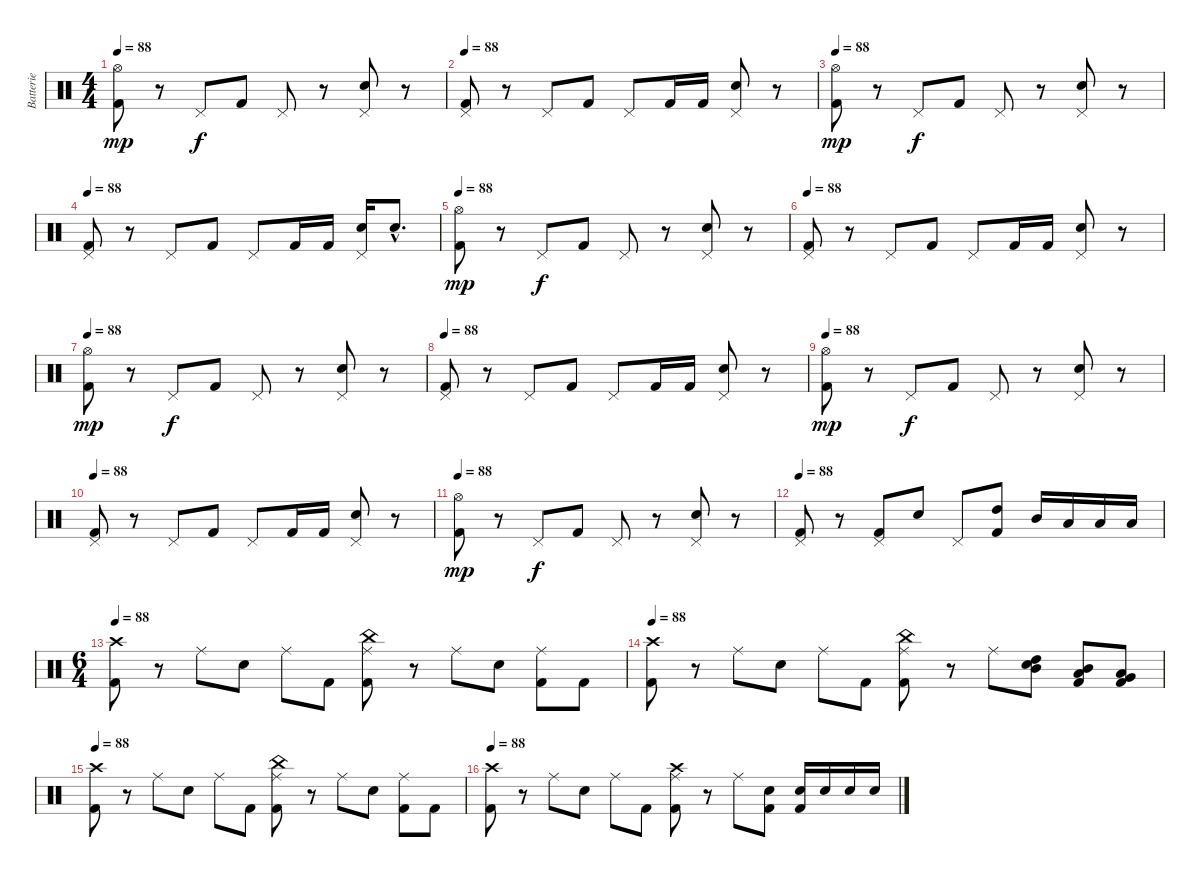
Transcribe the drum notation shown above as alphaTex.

\track ("Batterie" "Batterie") {instrument percussion}
\staff {score}
\articulation defaults
\ts (4 4)
\tempo 88
\clef neutral
\ks c
("Hi-Hat (open)" "Kick (hit) 2").8{dy mp} r.8 "Pedal Hi-Hat (hit)".8{dy f} "Kick (hit) 2".8 "Pedal Hi-Hat (hit)".8 r.8 ("Pedal Hi-Hat (hit)" "Electric Snare (hit)").8 r.8 |
\tempo 88
("Pedal Hi-Hat (hit)" "Kick (hit) 2").8 r.8 "Pedal Hi-Hat (hit)".8 "Kick (hit) 2".8 "Pedal Hi-Hat (hit)".8 "Kick (hit) 2".16 "Kick (hit) 2".16 ("Pedal Hi-Hat (hit)" "Electric Snare (hit)").8 r.8 |
\tempo 88
("Hi-Hat (open)" "Kick (hit) 2").8{dy mp} r.8 "Pedal Hi-Hat (hit)".8{dy f} "Kick (hit) 2".8 "Pedal Hi-Hat (hit)".8 r.8 ("Pedal Hi-Hat (hit)" "Electric Snare (hit)").8 r.8 |
\tempo 88
("Pedal Hi-Hat (hit)" "Kick (hit) 2").8 r.8 "Pedal Hi-Hat (hit)".8 "Kick (hit) 2".8 "Pedal Hi-Hat (hit)".8 "Kick (hit) 2".16 "Kick (hit) 2".16 ("Pedal Hi-Hat (hit)" "Electric Snare (hit)").16 "Electric Snare (hit)"{hac}.8{d} |
\tempo 88
("Hi-Hat (open)" "Kick (hit) 2").8{dy mp} r.8 "Pedal Hi-Hat (hit)".8{dy f} "Kick (hit) 2".8 "Pedal Hi-Hat (hit)".8 r.8 ("Pedal Hi-Hat (hit)" "Electric Snare (hit)").8 r.8 |
\tempo 88
("Pedal Hi-Hat (hit)" "Kick (hit) 2").8 r.8 "Pedal Hi-Hat (hit)".8 "Kick (hit) 2".8 "Pedal Hi-Hat (hit)".8 "Kick (hit) 2".16 "Kick (hit) 2".16 ("Pedal Hi-Hat (hit)" "Electric Snare (hit)").8 r.8 |
\tempo 88
("Hi-Hat (open)" "Kick (hit) 2").8{dy mp} r.8 "Pedal Hi-Hat (hit)".8{dy f} "Kick (hit) 2".8 "Pedal Hi-Hat (hit)".8 r.8 ("Pedal Hi-Hat (hit)" "Electric Snare (hit)").8 r.8 |
\tempo 88
("Pedal Hi-Hat (hit)" "Kick (hit) 2").8 r.8 "Pedal Hi-Hat (hit)".8 "Kick (hit) 2".8 "Pedal Hi-Hat (hit)".8 "Kick (hit) 2".16 "Kick (hit) 2".16 ("Pedal Hi-Hat (hit)" "Electric Snare (hit)").8 r.8 |
\tempo 88
("Hi-Hat (open)" "Kick (hit) 2").8{dy mp} r.8 "Pedal Hi-Hat (hit)".8{dy f} "Kick (hit) 2".8 "Pedal Hi-Hat (hit)".8 r.8 ("Pedal Hi-Hat (hit)" "Electric Snare (hit)").8 r.8 |
\tempo 88
("Pedal Hi-Hat (hit)" "Kick (hit) 2").8 r.8 "Pedal Hi-Hat (hit)".8 "Kick (hit) 2".8 "Pedal Hi-Hat (hit)".8 "Kick (hit) 2".16 "Kick (hit) 2".16 ("Pedal Hi-Hat (hit)" "Electric Snare (hit)").8 r.8 |
\tempo 88
("Hi-Hat (open)" "Kick (hit) 2").8{dy mp} r.8 "Pedal Hi-Hat (hit)".8{dy f} "Kick (hit) 2".8 "Pedal Hi-Hat (hit)".8 r.8 ("Pedal Hi-Hat (hit)" "Electric Snare (hit)").8 r.8 |
\tempo 88
("Pedal Hi-Hat (hit)" "Kick (hit) 2").8 r.8 ("Pedal Hi-Hat (hit)" "Kick (hit) 2").8 "Electric Snare (hit)".8 "Pedal Hi-Hat (hit)".8 ("High Tom (hit)" "Kick (hit) 2").8 "Mid Tom (hit)".16 "Low Tom (hit)".16 "Low Floor Tom (hit)".16 "Low Floor Tom (hit)".16 |
\ts (6 4)
\tempo 88
("Crash high (hit)" "Kick (hit) 2").8 r.8 "Ride (middle)".8 "Electric Snare (hit)".8 "Ride (middle)".8 "Kick (hit) 2".8 ("China (hit)" "Ride (middle)" "Kick (hit) 2").8 r.8 "Ride (middle)".8 "Electric Snare (hit)".8 ("Ride (middle)" "Kick (hit) 2").8 "Kick (hit) 2".8 |
\tempo 88
("Crash high (hit)" "Kick (hit) 2").8 r.8 "Ride (middle)".8 "Electric Snare (hit)".8 "Ride (middle)".8 "Kick (hit) 2".8 ("China (hit)" "Ride (middle)" "Kick (hit) 2").8 r.8 "Ride (middle)".8 ("High Tom (hit)" "Mid Tom (hit)" "Electric Snare (hit)").8 ("Mid Tom (hit)" "Low Tom (hit)" "Kick (hit) 2").8 ("Low Tom (hit)" "Very Low Tom (hit)" "Kick (hit) 2").8 |
\tempo 88
("Crash high (hit)" "Kick (hit) 2").8 r.8 "Ride (middle)".8 "Electric Snare (hit)".8 "Ride (middle)".8 "Kick (hit) 2".8 ("China (hit)" "Ride (middle)" "Kick (hit) 2").8 r.8 "Ride (middle)".8 "Electric Snare (hit)".8 ("Ride (middle)" "Kick (hit) 2").8 "Kick (hit) 2".8 |
\tempo 88
("Crash high (hit)" "Kick (hit) 2").8 r.8 "Ride (middle)".8 "Electric Snare (hit)".8 "Ride (middle)".8 "Kick (hit) 2".8 ("Crash high (hit)" "Ride (middle)" "Kick (hit) 2").8 r.8 "Ride (middle)".8 ("Electric Snare (hit)" "Kick (hit) 2").8 ("Electric Snare (hit)" "Kick (hit) 2").16 "Electric Snare (hit)".16 "Electric Snare (hit)".16 "Electric Snare (hit)".16
